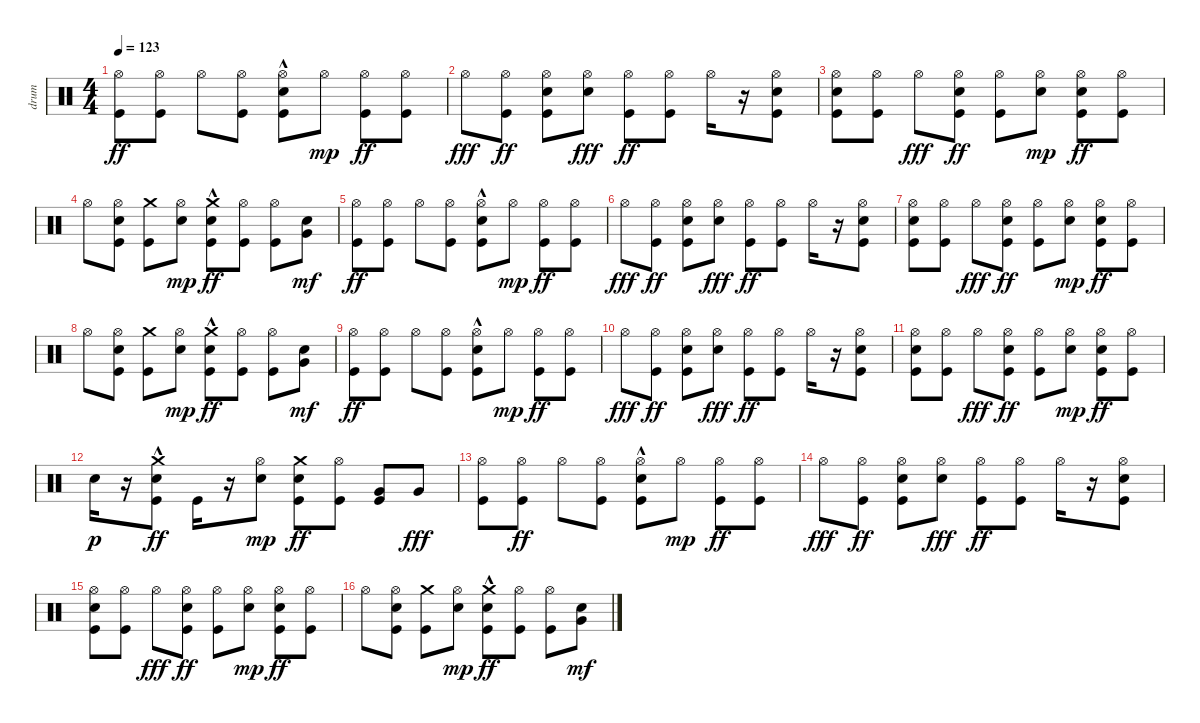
\track ("drum" "drum") {instrument percussion}
\staff {score}
\articulation defaults
\ts (4 4)
\tempo 123
\clef neutral
\ks c
("Hi-Hat (open)" "Kick (hit)").8{dy ff} ("Hi-Hat (open)" "Kick (hit)").8 "Hi-Hat (open)".8 ("Hi-Hat (open)" "Kick (hit)").8 ("Hi-Hat (open)" "Electric Snare (hit)"{hac} "Kick (hit)").8 "Hi-Hat (open)".8{dy mp} ("Hi-Hat (open)" "Kick (hit)").8{dy ff} ("Hi-Hat (open)" "Kick (hit)").8 |
"Hi-Hat (open)".8{dy fff} ("Hi-Hat (open)" "Kick (hit)").8{dy ff} ("Electric Snare (hit)" "Hi-Hat (open)" "Kick (hit)").8 ("Hi-Hat (open)" "Electric Snare (hit)").8{dy fff} ("Hi-Hat (open)" "Kick (hit)").8{dy ff} ("Hi-Hat (open)" "Kick (hit)").8 "Hi-Hat (open)".16 r.16 ("Hi-Hat (open)" "Electric Snare (hit)" "Kick (hit)").8 |
("Hi-Hat (open)" "Electric Snare (hit)" "Kick (hit)").8 ("Hi-Hat (open)" "Kick (hit)").8 "Hi-Hat (open)".8{dy fff} ("Electric Snare (hit)" "Hi-Hat (open)" "Kick (hit)").8{dy ff} ("Hi-Hat (open)" "Kick (hit)").8 ("Hi-Hat (open)" "Electric Snare (hit)").8{dy mp} ("Hi-Hat (open)" "Electric Snare (hit)" "Kick (hit)").8{dy ff} ("Hi-Hat (open)" "Kick (hit)").8 |
"Hi-Hat (open)".8 ("Electric Snare (hit)" "Hi-Hat (open)" "Kick (hit)").8 ("Crash medium (hit)" "Kick (hit)").8 ("Hi-Hat (open)" "Electric Snare (hit)").8{dy mp} ("Crash medium (hit)" "Electric Snare (hit)"{hac} "Kick (hit)").8{dy ff} ("Hi-Hat (open)" "Kick (hit)").8 ("Hi-Hat (open)" "Kick (hit)").8 ("Very Low Tom (hit)" "Electric Snare (hit)").8{dy mf} |
("Hi-Hat (open)" "Kick (hit)").8{dy ff} ("Hi-Hat (open)" "Kick (hit)").8 "Hi-Hat (open)".8 ("Hi-Hat (open)" "Kick (hit)").8 ("Hi-Hat (open)" "Electric Snare (hit)"{hac} "Kick (hit)").8 "Hi-Hat (open)".8{dy mp} ("Hi-Hat (open)" "Kick (hit)").8{dy ff} ("Hi-Hat (open)" "Kick (hit)").8 |
"Hi-Hat (open)".8{dy fff} ("Hi-Hat (open)" "Kick (hit)").8{dy ff} ("Electric Snare (hit)" "Hi-Hat (open)" "Kick (hit)").8 ("Hi-Hat (open)" "Electric Snare (hit)").8{dy fff} ("Hi-Hat (open)" "Kick (hit)").8{dy ff} ("Hi-Hat (open)" "Kick (hit)").8 "Hi-Hat (open)".16 r.16 ("Hi-Hat (open)" "Electric Snare (hit)" "Kick (hit)").8 |
("Hi-Hat (open)" "Electric Snare (hit)" "Kick (hit)").8 ("Hi-Hat (open)" "Kick (hit)").8 "Hi-Hat (open)".8{dy fff} ("Electric Snare (hit)" "Hi-Hat (open)" "Kick (hit)").8{dy ff} ("Hi-Hat (open)" "Kick (hit)").8 ("Hi-Hat (open)" "Electric Snare (hit)").8{dy mp} ("Hi-Hat (open)" "Electric Snare (hit)" "Kick (hit)").8{dy ff} ("Hi-Hat (open)" "Kick (hit)").8 |
"Hi-Hat (open)".8 ("Electric Snare (hit)" "Hi-Hat (open)" "Kick (hit)").8 ("Crash medium (hit)" "Kick (hit)").8 ("Hi-Hat (open)" "Electric Snare (hit)").8{dy mp} ("Crash medium (hit)" "Electric Snare (hit)"{hac} "Kick (hit)").8{dy ff} ("Hi-Hat (open)" "Kick (hit)").8 ("Hi-Hat (open)" "Kick (hit)").8 ("Very Low Tom (hit)" "Electric Snare (hit)").8{dy mf} |
("Hi-Hat (open)" "Kick (hit)").8{dy ff} ("Hi-Hat (open)" "Kick (hit)").8 "Hi-Hat (open)".8 ("Hi-Hat (open)" "Kick (hit)").8 ("Hi-Hat (open)" "Electric Snare (hit)"{hac} "Kick (hit)").8 "Hi-Hat (open)".8{dy mp} ("Hi-Hat (open)" "Kick (hit)").8{dy ff} ("Hi-Hat (open)" "Kick (hit)").8 |
"Hi-Hat (open)".8{dy fff} ("Hi-Hat (open)" "Kick (hit)").8{dy ff} ("Electric Snare (hit)" "Hi-Hat (open)" "Kick (hit)").8 ("Hi-Hat (open)" "Electric Snare (hit)").8{dy fff} ("Hi-Hat (open)" "Kick (hit)").8{dy ff} ("Hi-Hat (open)" "Kick (hit)").8 "Hi-Hat (open)".16 r.16 ("Hi-Hat (open)" "Electric Snare (hit)" "Kick (hit)").8 |
("Hi-Hat (open)" "Electric Snare (hit)" "Kick (hit)").8 ("Hi-Hat (open)" "Kick (hit)").8 "Hi-Hat (open)".8{dy fff} ("Electric Snare (hit)" "Hi-Hat (open)" "Kick (hit)").8{dy ff} ("Hi-Hat (open)" "Kick (hit)").8 ("Hi-Hat (open)" "Electric Snare (hit)").8{dy mp} ("Hi-Hat (open)" "Electric Snare (hit)" "Kick (hit)").8{dy ff} ("Hi-Hat (open)" "Kick (hit)").8 |
"Electric Snare (hit)".16{dy p} r.16 ("Crash medium (hit)"{hac} "Electric Snare (hit)" "Kick (hit)").8{dy ff} "Kick (hit)".16 r.16 ("Hi-Hat (open)" "Electric Snare (hit)").8{dy mp} ("Crash medium (hit)" "Electric Snare (hit)" "Kick (hit)").8{dy ff} ("Hi-Hat (open)" "Kick (hit)").8 ("Very Low Tom (hit)" "Kick (hit)").8 "Very Low Tom (hit)".8{dy fff} |
("Kick (hit)" "Hi-Hat (open)").8 ("Hi-Hat (open)" "Kick (hit)").8{dy ff} "Hi-Hat (open)".8 ("Hi-Hat (open)" "Kick (hit)").8 ("Hi-Hat (open)" "Electric Snare (hit)"{hac} "Kick (hit)").8 "Hi-Hat (open)".8{dy mp} ("Hi-Hat (open)" "Kick (hit)").8{dy ff} ("Hi-Hat (open)" "Kick (hit)").8 |
"Hi-Hat (open)".8{dy fff} ("Hi-Hat (open)" "Kick (hit)").8{dy ff} ("Electric Snare (hit)" "Hi-Hat (open)" "Kick (hit)").8 ("Hi-Hat (open)" "Electric Snare (hit)").8{dy fff} ("Hi-Hat (open)" "Kick (hit)").8{dy ff} ("Hi-Hat (open)" "Kick (hit)").8 "Hi-Hat (open)".16 r.16 ("Hi-Hat (open)" "Electric Snare (hit)" "Kick (hit)").8 |
("Hi-Hat (open)" "Electric Snare (hit)" "Kick (hit)").8 ("Hi-Hat (open)" "Kick (hit)").8 "Hi-Hat (open)".8{dy fff} ("Electric Snare (hit)" "Hi-Hat (open)" "Kick (hit)").8{dy ff} ("Hi-Hat (open)" "Kick (hit)").8 ("Hi-Hat (open)" "Electric Snare (hit)").8{dy mp} ("Hi-Hat (open)" "Electric Snare (hit)" "Kick (hit)").8{dy ff} ("Hi-Hat (open)" "Kick (hit)").8 |
"Hi-Hat (open)".8 ("Electric Snare (hit)" "Hi-Hat (open)" "Kick (hit)").8 ("Crash medium (hit)" "Kick (hit)").8 ("Hi-Hat (open)" "Electric Snare (hit)").8{dy mp} ("Crash medium (hit)" "Electric Snare (hit)"{hac} "Kick (hit)").8{dy ff} ("Hi-Hat (open)" "Kick (hit)").8 ("Hi-Hat (open)" "Kick (hit)").8 ("Very Low Tom (hit)" "Electric Snare (hit)").8{dy mf}
